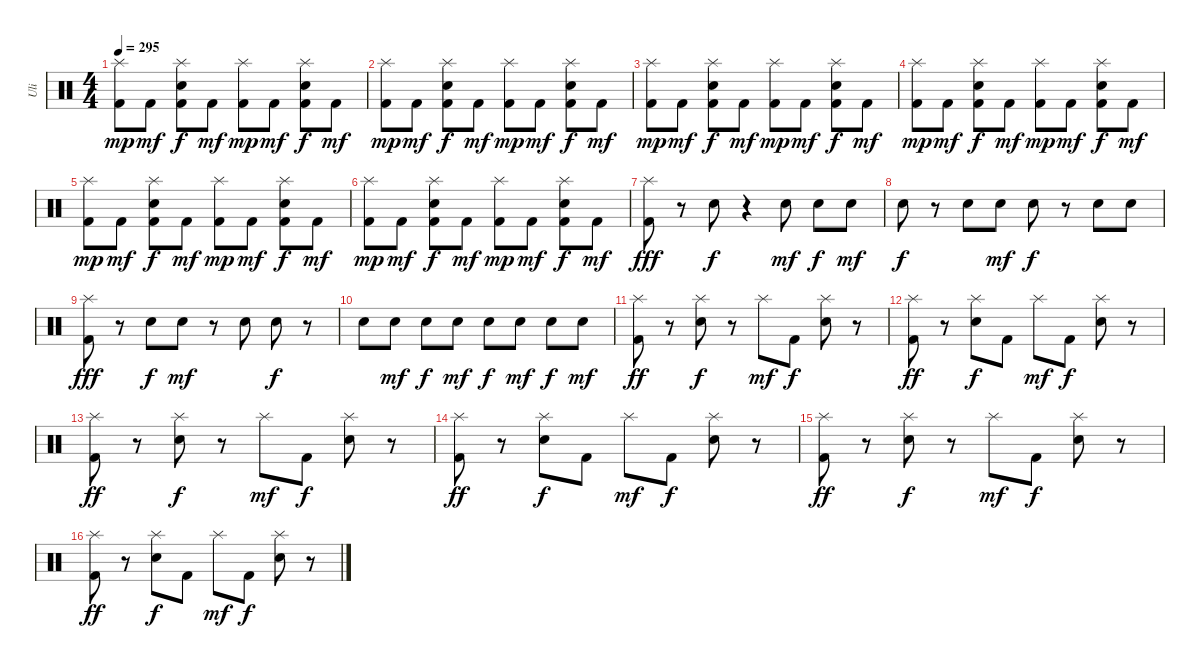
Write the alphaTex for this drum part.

\track ("Uli" "Uli") {instrument percussion}
\staff {score}
\articulation defaults
\ts (4 4)
\tempo 295
\clef neutral
\ks c
("Splash (hit)" "Kick (hit) 2").8{dy mp} "Kick (hit) 2".8{dy mf} ("Splash (hit)" "Electric Snare (hit)" "Kick (hit) 2").8{dy f} "Kick (hit) 2".8{dy mf} ("Splash (hit)" "Kick (hit) 2").8{dy mp} "Kick (hit) 2".8{dy mf} ("Splash (hit)" "Electric Snare (hit)" "Kick (hit) 2").8{dy f} "Kick (hit) 2".8{dy mf} |
("Splash (hit)" "Kick (hit) 2").8{dy mp} "Kick (hit) 2".8{dy mf} ("Splash (hit)" "Electric Snare (hit)" "Kick (hit) 2").8{dy f} "Kick (hit) 2".8{dy mf} ("Splash (hit)" "Kick (hit) 2").8{dy mp} "Kick (hit) 2".8{dy mf} ("Splash (hit)" "Electric Snare (hit)" "Kick (hit) 2").8{dy f} "Kick (hit) 2".8{dy mf} |
("Splash (hit)" "Kick (hit) 2").8{dy mp} "Kick (hit) 2".8{dy mf} ("Splash (hit)" "Electric Snare (hit)" "Kick (hit) 2").8{dy f} "Kick (hit) 2".8{dy mf} ("Splash (hit)" "Kick (hit) 2").8{dy mp} "Kick (hit) 2".8{dy mf} ("Splash (hit)" "Electric Snare (hit)" "Kick (hit) 2").8{dy f} "Kick (hit) 2".8{dy mf} |
("Splash (hit)" "Kick (hit) 2").8{dy mp} "Kick (hit) 2".8{dy mf} ("Splash (hit)" "Electric Snare (hit)" "Kick (hit) 2").8{dy f} "Kick (hit) 2".8{dy mf} ("Splash (hit)" "Kick (hit) 2").8{dy mp} "Kick (hit) 2".8{dy mf} ("Splash (hit)" "Electric Snare (hit)" "Kick (hit) 2").8{dy f} "Kick (hit) 2".8{dy mf} |
("Splash (hit)" "Kick (hit) 2").8{dy mp} "Kick (hit) 2".8{dy mf} ("Splash (hit)" "Electric Snare (hit)" "Kick (hit) 2").8{dy f} "Kick (hit) 2".8{dy mf} ("Splash (hit)" "Kick (hit) 2").8{dy mp} "Kick (hit) 2".8{dy mf} ("Splash (hit)" "Electric Snare (hit)" "Kick (hit) 2").8{dy f} "Kick (hit) 2".8{dy mf} |
("Splash (hit)" "Kick (hit) 2").8{dy mp} "Kick (hit) 2".8{dy mf} ("Splash (hit)" "Electric Snare (hit)" "Kick (hit) 2").8{dy f} "Kick (hit) 2".8{dy mf} ("Splash (hit)" "Kick (hit) 2").8{dy mp} "Kick (hit) 2".8{dy mf} ("Splash (hit)" "Electric Snare (hit)" "Kick (hit) 2").8{dy f} "Kick (hit) 2".8{dy mf} |
("Splash (hit)" "Kick (hit) 2").8{dy fff} r.8 "Electric Snare (hit)".8{dy f} r.4 "Electric Snare (hit)".8{dy mf} "Electric Snare (hit)".8{dy f} "Electric Snare (hit)".8{dy mf} |
"Electric Snare (hit)".8{dy f} r.8 "Electric Snare (hit)".8 "Electric Snare (hit)".8{dy mf} "Electric Snare (hit)".8{dy f} r.8 "Electric Snare (hit)".8 "Electric Snare (hit)".8 |
("Splash (hit)" "Kick (hit) 2").8{dy fff} r.8 "Electric Snare (hit)".8{dy f} "Electric Snare (hit)".8{dy mf} r.8 "Electric Snare (hit)".8 "Electric Snare (hit)".8{dy f} r.8 |
"Electric Snare (hit)".8 "Electric Snare (hit)".8{dy mf} "Electric Snare (hit)".8{dy f} "Electric Snare (hit)".8{dy mf} "Electric Snare (hit)".8{dy f} "Electric Snare (hit)".8{dy mf} "Electric Snare (hit)".8{dy f} "Electric Snare (hit)".8{dy mf} |
("Splash (hit)" "Kick (hit) 2").8{dy ff} r.8 ("Splash (hit)" "Electric Snare (hit)").8{dy f} r.8 "Splash (hit)".8{dy mf} "Kick (hit) 2".8{dy f} ("Splash (hit)" "Electric Snare (hit)").8 r.8 |
("Splash (hit)" "Kick (hit) 2").8{dy ff} r.8 ("Splash (hit)" "Electric Snare (hit)").8{dy f} "Kick (hit) 2".8 "Splash (hit)".8{dy mf} "Kick (hit) 2".8{dy f} ("Splash (hit)" "Electric Snare (hit)").8 r.8 |
("Splash (hit)" "Kick (hit) 2").8{dy ff} r.8 ("Splash (hit)" "Electric Snare (hit)").8{dy f} r.8 "Splash (hit)".8{dy mf} "Kick (hit) 2".8{dy f} ("Splash (hit)" "Electric Snare (hit)").8 r.8 |
("Splash (hit)" "Kick (hit) 2").8{dy ff} r.8 ("Splash (hit)" "Electric Snare (hit)").8{dy f} "Kick (hit) 2".8 "Splash (hit)".8{dy mf} "Kick (hit) 2".8{dy f} ("Splash (hit)" "Electric Snare (hit)").8 r.8 |
("Splash (hit)" "Kick (hit) 2").8{dy ff} r.8 ("Splash (hit)" "Electric Snare (hit)").8{dy f} r.8 "Splash (hit)".8{dy mf} "Kick (hit) 2".8{dy f} ("Splash (hit)" "Electric Snare (hit)").8 r.8 |
("Splash (hit)" "Kick (hit) 2").8{dy ff} r.8 ("Splash (hit)" "Electric Snare (hit)").8{dy f} "Kick (hit) 2".8 "Splash (hit)".8{dy mf} "Kick (hit) 2".8{dy f} ("Splash (hit)" "Electric Snare (hit)").8 r.8
